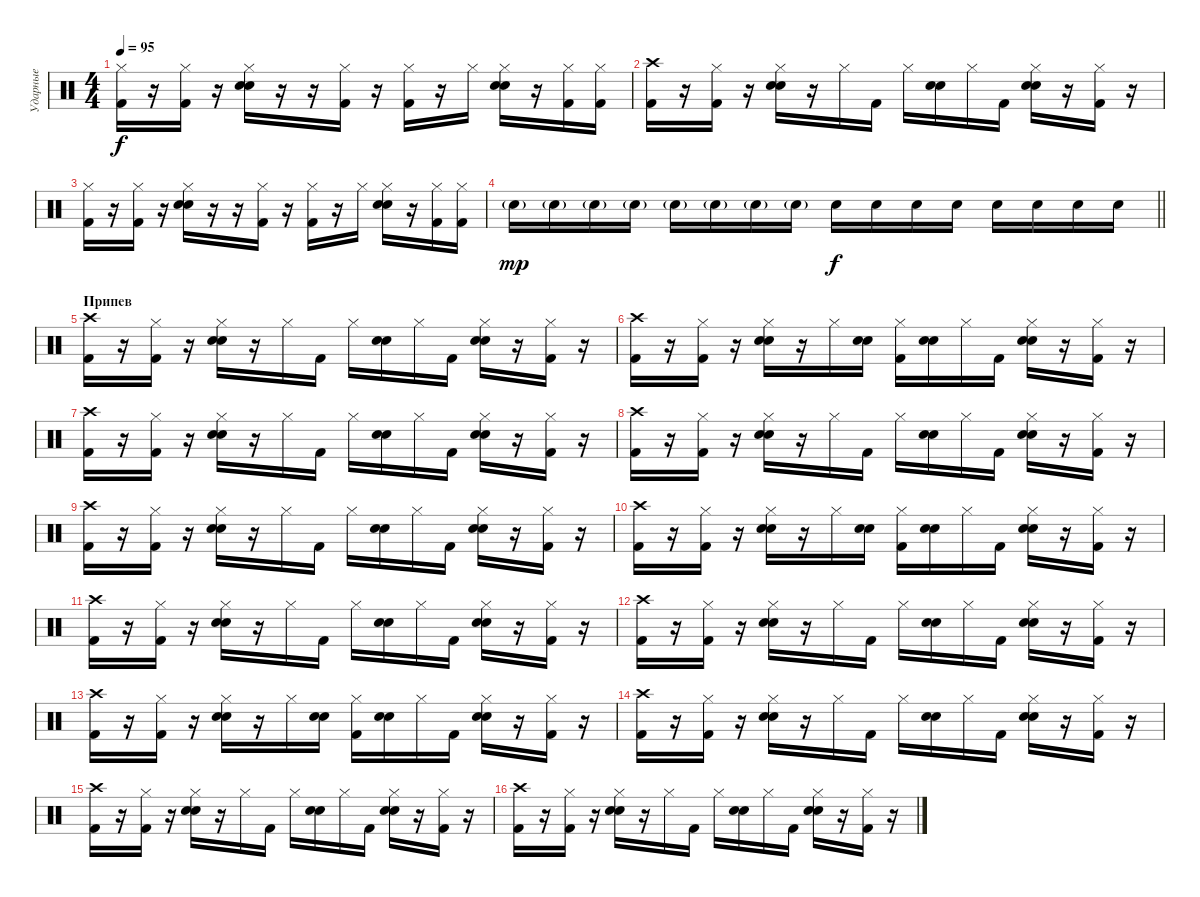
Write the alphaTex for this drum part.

\track ("Ударные" "Ударные") {instrument percussion}
\staff {score}
\articulation defaults
\ts (4 4)
\tempo 95
\clef neutral
\ks c
("Hi-Hat (closed)" "Kick (hit) 2").16{dy f} r.16 ("Hi-Hat (closed)" "Kick (hit) 2").16 r.16 ("Hi-Hat (closed)" "Snare (hit) 2" "Electric Snare (hit)").16 r.16 r.16 ("Hi-Hat (closed)" "Kick (hit) 2").16 r.16 ("Hi-Hat (closed)" "Kick (hit) 2").16 r.16 "Hi-Hat (closed)".16 ("Hi-Hat (closed)" "Snare (hit) 2" "Electric Snare (hit)").16 r.16 ("Hi-Hat (closed)" "Kick (hit) 2").16 ("Hi-Hat (closed)" "Kick (hit) 2").16 |
("Crash high (hit)" "Kick (hit) 2").16 r.16 ("Hi-Hat (closed)" "Kick (hit) 2").16 r.16 ("Hi-Hat (closed)" "Snare (hit) 2" "Electric Snare (hit)").16 r.16 "Hi-Hat (closed)".16 "Kick (hit) 2".16 "Hi-Hat (closed)".16 ("Snare (hit) 2" "Electric Snare (hit)").16 "Hi-Hat (closed)".16 "Kick (hit) 2".16 ("Hi-Hat (closed)" "Snare (hit) 2" "Electric Snare (hit)").16 r.16 ("Hi-Hat (closed)" "Kick (hit) 2").16 r.16 |
("Hi-Hat (closed)" "Kick (hit) 2").16 r.16 ("Hi-Hat (closed)" "Kick (hit) 2").16 r.16 ("Hi-Hat (closed)" "Snare (hit) 2" "Electric Snare (hit)").16 r.16 r.16 ("Hi-Hat (closed)" "Kick (hit) 2").16 r.16 ("Hi-Hat (closed)" "Kick (hit) 2").16 r.16 "Hi-Hat (closed)".16 ("Hi-Hat (closed)" "Snare (hit) 2" "Electric Snare (hit)").16 r.16 ("Hi-Hat (closed)" "Kick (hit) 2").16 ("Hi-Hat (closed)" "Kick (hit) 2").16 |
\barLineRight lightlight "Electric Snare (hit)"{g}.16{dy mp} "Electric Snare (hit)"{g}.16 "Electric Snare (hit)"{g}.16 "Electric Snare (hit)"{g}.16 "Electric Snare (hit)"{g}.16 "Electric Snare (hit)"{g}.16 "Electric Snare (hit)"{g}.16 "Electric Snare (hit)"{g}.16 "Electric Snare (hit)".16{dy f} "Electric Snare (hit)".16 "Electric Snare (hit)".16 "Electric Snare (hit)".16 "Electric Snare (hit)".16 "Electric Snare (hit)".16 "Electric Snare (hit)".16 "Electric Snare (hit)".16
|
\section ("" "Припев")
("Crash high (hit)" "Kick (hit) 2").16 r.16 ("Hi-Hat (closed)" "Kick (hit) 2").16 r.16 ("Hi-Hat (closed)" "Snare (hit) 2" "Electric Snare (hit)").16 r.16 "Hi-Hat (closed)".16 "Kick (hit) 2".16 "Hi-Hat (closed)".16 ("Snare (hit) 2" "Electric Snare (hit)").16 "Hi-Hat (closed)".16 "Kick (hit) 2".16 ("Hi-Hat (closed)" "Snare (hit) 2" "Electric Snare (hit)").16 r.16 ("Hi-Hat (closed)" "Kick (hit) 2").16 r.16 |
("Crash high (hit)" "Kick (hit) 2").16 r.16 ("Hi-Hat (closed)" "Kick (hit) 2").16 r.16 ("Hi-Hat (closed)" "Snare (hit) 2" "Electric Snare (hit)").16 r.16 "Hi-Hat (closed)".16 ("Snare (hit) 2" "Electric Snare (hit)").16 ("Hi-Hat (closed)" "Kick (hit) 2").16 ("Snare (hit) 2" "Electric Snare (hit)").16 "Hi-Hat (closed)".16 "Kick (hit) 2".16 ("Hi-Hat (closed)" "Snare (hit) 2" "Electric Snare (hit)").16 r.16 ("Hi-Hat (closed)" "Kick (hit) 2").16 r.16 |
("Crash high (hit)" "Kick (hit) 2").16 r.16 ("Hi-Hat (closed)" "Kick (hit) 2").16 r.16 ("Hi-Hat (closed)" "Snare (hit) 2" "Electric Snare (hit)").16 r.16 "Hi-Hat (closed)".16 "Kick (hit) 2".16 "Hi-Hat (closed)".16 ("Snare (hit) 2" "Electric Snare (hit)").16 "Hi-Hat (closed)".16 "Kick (hit) 2".16 ("Hi-Hat (closed)" "Snare (hit) 2" "Electric Snare (hit)").16 r.16 ("Hi-Hat (closed)" "Kick (hit) 2").16 r.16 |
("Crash high (hit)" "Kick (hit) 2").16 r.16 ("Hi-Hat (closed)" "Kick (hit) 2").16 r.16 ("Hi-Hat (closed)" "Snare (hit) 2" "Electric Snare (hit)").16 r.16 "Hi-Hat (closed)".16 "Kick (hit) 2".16 "Hi-Hat (closed)".16 ("Snare (hit) 2" "Electric Snare (hit)").16 "Hi-Hat (closed)".16 "Kick (hit) 2".16 ("Hi-Hat (closed)" "Snare (hit) 2" "Electric Snare (hit)").16 r.16 ("Hi-Hat (closed)" "Kick (hit) 2").16 r.16 |
("Crash high (hit)" "Kick (hit) 2").16 r.16 ("Hi-Hat (closed)" "Kick (hit) 2").16 r.16 ("Hi-Hat (closed)" "Snare (hit) 2" "Electric Snare (hit)").16 r.16 "Hi-Hat (closed)".16 "Kick (hit) 2".16 "Hi-Hat (closed)".16 ("Snare (hit) 2" "Electric Snare (hit)").16 "Hi-Hat (closed)".16 "Kick (hit) 2".16 ("Hi-Hat (closed)" "Snare (hit) 2" "Electric Snare (hit)").16 r.16 ("Hi-Hat (closed)" "Kick (hit) 2").16 r.16 |
("Crash high (hit)" "Kick (hit) 2").16 r.16 ("Hi-Hat (closed)" "Kick (hit) 2").16 r.16 ("Hi-Hat (closed)" "Snare (hit) 2" "Electric Snare (hit)").16 r.16 "Hi-Hat (closed)".16 ("Snare (hit) 2" "Electric Snare (hit)").16 ("Hi-Hat (closed)" "Kick (hit) 2").16 ("Snare (hit) 2" "Electric Snare (hit)").16 "Hi-Hat (closed)".16 "Kick (hit) 2".16 ("Hi-Hat (closed)" "Snare (hit) 2" "Electric Snare (hit)").16 r.16 ("Hi-Hat (closed)" "Kick (hit) 2").16 r.16 |
("Crash high (hit)" "Kick (hit) 2").16 r.16 ("Hi-Hat (closed)" "Kick (hit) 2").16 r.16 ("Hi-Hat (closed)" "Snare (hit) 2" "Electric Snare (hit)").16 r.16 "Hi-Hat (closed)".16 "Kick (hit) 2".16 "Hi-Hat (closed)".16 ("Snare (hit) 2" "Electric Snare (hit)").16 "Hi-Hat (closed)".16 "Kick (hit) 2".16 ("Hi-Hat (closed)" "Snare (hit) 2" "Electric Snare (hit)").16 r.16 ("Hi-Hat (closed)" "Kick (hit) 2").16 r.16 |
("Crash high (hit)" "Kick (hit) 2").16 r.16 ("Hi-Hat (closed)" "Kick (hit) 2").16 r.16 ("Hi-Hat (closed)" "Snare (hit) 2" "Electric Snare (hit)").16 r.16 "Hi-Hat (closed)".16 "Kick (hit) 2".16 "Hi-Hat (closed)".16 ("Snare (hit) 2" "Electric Snare (hit)").16 "Hi-Hat (closed)".16 "Kick (hit) 2".16 ("Hi-Hat (closed)" "Snare (hit) 2" "Electric Snare (hit)").16 r.16 ("Hi-Hat (closed)" "Kick (hit) 2").16 r.16 |
("Crash high (hit)" "Kick (hit) 2").16 r.16 ("Hi-Hat (closed)" "Kick (hit) 2").16 r.16 ("Hi-Hat (closed)" "Snare (hit) 2" "Electric Snare (hit)").16 r.16 "Hi-Hat (closed)".16 ("Snare (hit) 2" "Electric Snare (hit)").16 ("Hi-Hat (closed)" "Kick (hit) 2").16 ("Snare (hit) 2" "Electric Snare (hit)").16 "Hi-Hat (closed)".16 "Kick (hit) 2".16 ("Hi-Hat (closed)" "Snare (hit) 2" "Electric Snare (hit)").16 r.16 ("Hi-Hat (closed)" "Kick (hit) 2").16 r.16 |
("Crash high (hit)" "Kick (hit) 2").16 r.16 ("Hi-Hat (closed)" "Kick (hit) 2").16 r.16 ("Hi-Hat (closed)" "Snare (hit) 2" "Electric Snare (hit)").16 r.16 "Hi-Hat (closed)".16 "Kick (hit) 2".16 "Hi-Hat (closed)".16 ("Snare (hit) 2" "Electric Snare (hit)").16 "Hi-Hat (closed)".16 "Kick (hit) 2".16 ("Hi-Hat (closed)" "Snare (hit) 2" "Electric Snare (hit)").16 r.16 ("Hi-Hat (closed)" "Kick (hit) 2").16 r.16 |
("Crash high (hit)" "Kick (hit) 2").16 r.16 ("Hi-Hat (closed)" "Kick (hit) 2").16 r.16 ("Hi-Hat (closed)" "Snare (hit) 2" "Electric Snare (hit)").16 r.16 "Hi-Hat (closed)".16 "Kick (hit) 2".16 "Hi-Hat (closed)".16 ("Snare (hit) 2" "Electric Snare (hit)").16 "Hi-Hat (closed)".16 "Kick (hit) 2".16 ("Hi-Hat (closed)" "Snare (hit) 2" "Electric Snare (hit)").16 r.16 ("Hi-Hat (closed)" "Kick (hit) 2").16 r.16 |
("Crash high (hit)" "Kick (hit) 2").16 r.16 ("Hi-Hat (closed)" "Kick (hit) 2").16 r.16 ("Hi-Hat (closed)" "Snare (hit) 2" "Electric Snare (hit)").16 r.16 "Hi-Hat (closed)".16 "Kick (hit) 2".16 "Hi-Hat (closed)".16 ("Snare (hit) 2" "Electric Snare (hit)").16 "Hi-Hat (closed)".16 "Kick (hit) 2".16 ("Hi-Hat (closed)" "Snare (hit) 2" "Electric Snare (hit)").16 r.16 ("Hi-Hat (closed)" "Kick (hit) 2").16 r.16
